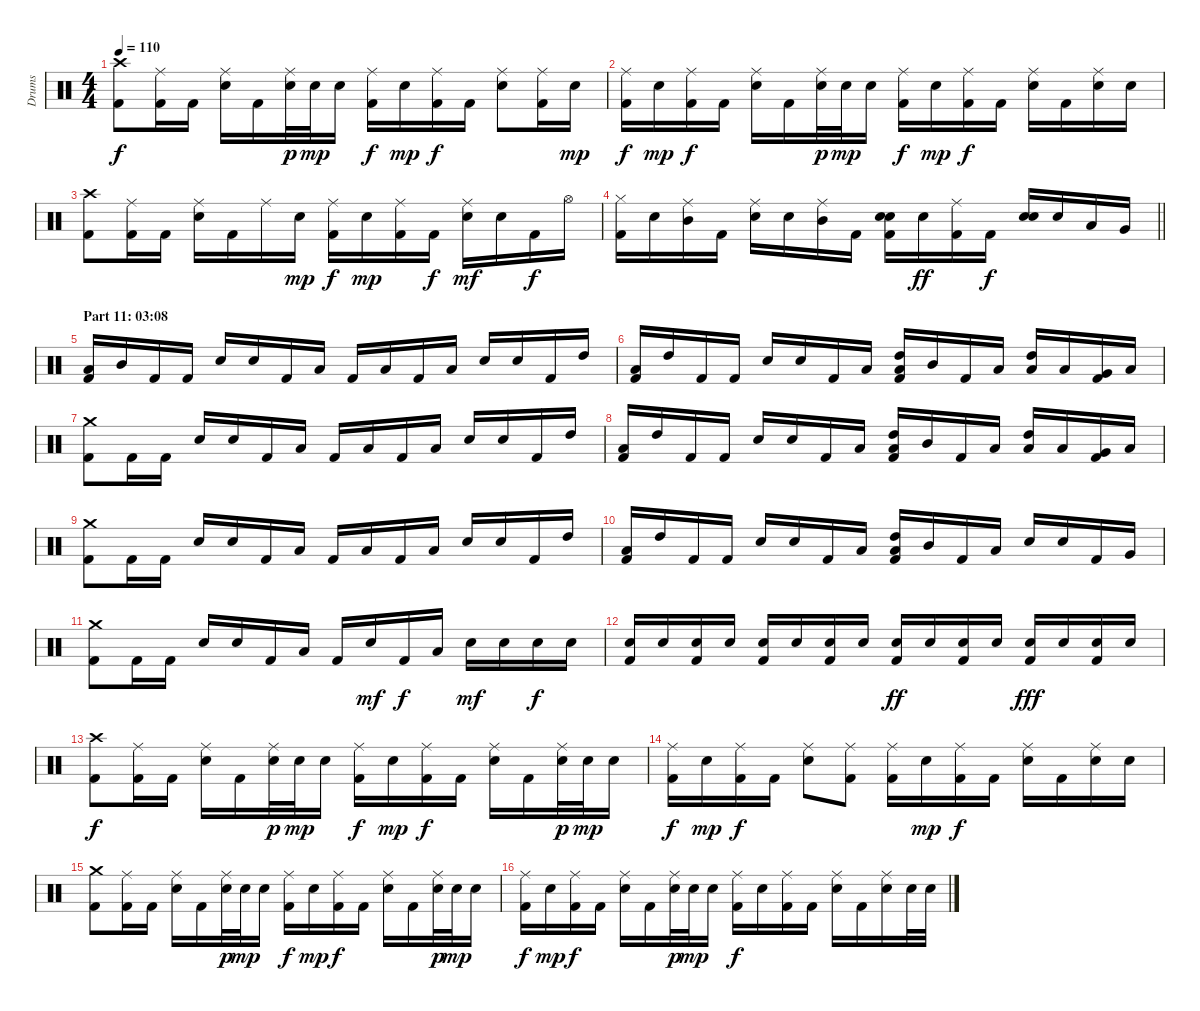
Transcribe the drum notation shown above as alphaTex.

\track ("Drums" "Drums") {instrument percussion}
\staff {score}
\articulation defaults
\ts (4 4)
\tempo 110
\clef neutral
\ks c
("Crash high (hit)" "Kick (hit) 2").8{dy f} ("Ride (middle)" "Kick (hit) 2").16 "Kick (hit) 2".16 ("Ride (middle)" "Electric Snare (hit)").16 "Kick (hit) 2".16 ("Ride (middle)" "Electric Snare (hit)").32{dy p} "Electric Snare (hit)".32{dy mp} "Electric Snare (hit)".16 ("Ride (middle)" "Kick (hit) 2").16{dy f} "Electric Snare (hit)".16{dy mp} ("Ride (middle)" "Kick (hit) 2").16{dy f} "Kick (hit) 2".16 ("Ride (middle)" "Electric Snare (hit)").8 ("Ride (middle)" "Kick (hit) 2").16 "Electric Snare (hit)".16{dy mp} |
("Ride (middle)" "Kick (hit) 2").16{dy f} "Electric Snare (hit)".16{dy mp} ("Ride (middle)" "Kick (hit) 2").16{dy f} "Kick (hit) 2".16 ("Ride (middle)" "Electric Snare (hit)").16 "Kick (hit) 2".16 ("Ride (middle)" "Electric Snare (hit)").32{dy p} "Electric Snare (hit)".32{dy mp} "Electric Snare (hit)".16 ("Ride (middle)" "Kick (hit) 2").16{dy f} "Electric Snare (hit)".16{dy mp} ("Ride (middle)" "Kick (hit) 2").16{dy f} "Kick (hit) 2".16 ("Ride (middle)" "Electric Snare (hit)").16 "Kick (hit) 2".16 ("Ride (middle)" "Electric Snare (hit)").16 "Electric Snare (hit)".16 |
("Crash high (hit)" "Kick (hit) 2").8 ("Ride (middle)" "Kick (hit) 2").16 "Kick (hit) 2".16 ("Ride (middle)" "Electric Snare (hit)").16 "Kick (hit) 2".16 "Ride (middle)".16 "Electric Snare (hit)".16{dy mp} ("Ride (middle)" "Kick (hit) 2").16{dy f} "Electric Snare (hit)".16{dy mp} ("Ride (middle)" "Kick (hit) 2").16 "Kick (hit) 2".16{dy f} ("Ride (middle)" "Electric Snare (hit)").16{dy mf} "Electric Snare (hit)".16 "Kick (hit) 2".16{dy f} "Hi-Hat (open)".16 |
\barLineRight lightlight
("Hi-Hat (closed)" "Kick (hit) 2").16 "Electric Snare (hit)".16 ("Ride (middle)" "Mid Tom (hit)").16 "Kick (hit) 2".16 ("Ride (middle)" "Electric Snare (hit)").16 "Electric Snare (hit)".16 ("Ride (middle)" "Mid Tom (hit)").16 "Kick (hit) 2".16 ("Electric Snare (hit)" "Electric Snare (hit)" "Kick (hit) 2").16{bd 60} "Electric Snare (hit)".16{dy ff} ("Ride (middle)" "Kick (hit) 2").16 "Kick (hit) 2".16{dy f} ("Electric Snare (hit)" "Electric Snare (hit)").16{bd 120} "Electric Snare (hit)".16 "Low Tom (hit)".16 "Very Low Tom (hit)".16 |
\section ("" "Part 11: 03:08")
("Low Floor Tom (hit)" "Kick (hit) 2").16 "Mid Tom (hit)".16 "Kick (hit) 2".16 "Kick (hit) 2".16 "Electric Snare (hit)".16 "Electric Snare (hit)".16 "Kick (hit) 2".16 "Low Floor Tom (hit)".16 "Kick (hit) 2".16 "Low Floor Tom (hit)".16 "Kick (hit) 2".16 "Low Floor Tom (hit)".16 "Electric Snare (hit)".16 "Electric Snare (hit)".16 "Kick (hit) 2".16 "High Tom (hit)".16 |
("Low Tom (hit)" "Kick (hit) 2").16 "High Tom (hit)".16 "Kick (hit) 2".16 "Kick (hit) 2".16 "Electric Snare (hit)".16 "Electric Snare (hit)".16 "Kick (hit) 2".16 "Low Tom (hit)".16 ("High Tom (hit)" "Low Tom (hit)" "Kick (hit) 2").16{bd 60} "Mid Tom (hit)".16 "Kick (hit) 2".16 "Low Floor Tom (hit)".16 ("High Tom (hit)" "Low Floor Tom (hit)").16{bd 120} "Low Tom (hit)".16 ("Very Low Tom (hit)" "Kick (hit) 2").16 "Low Floor Tom (hit)".16 |
("Crash medium (hit)" "Kick (hit) 2").8 "Kick (hit) 2".16 "Kick (hit) 2".16 "Electric Snare (hit)".16 "Electric Snare (hit)".16 "Kick (hit) 2".16 "Low Floor Tom (hit)".16 "Kick (hit) 2".16 "Low Floor Tom (hit)".16 "Kick (hit) 2".16 "Low Floor Tom (hit)".16 "Electric Snare (hit)".16 "Electric Snare (hit)".16 "Kick (hit) 2".16 "High Tom (hit)".16 |
("Low Tom (hit)" "Kick (hit) 2").16 "High Tom (hit)".16 "Kick (hit) 2".16 "Kick (hit) 2".16 "Electric Snare (hit)".16 "Electric Snare (hit)".16 "Kick (hit) 2".16 "Low Tom (hit)".16 ("High Tom (hit)" "Low Tom (hit)" "Kick (hit) 2").16{bd 60} "Mid Tom (hit)".16 "Kick (hit) 2".16 "Low Floor Tom (hit)".16 ("High Tom (hit)" "Low Floor Tom (hit)").16{bd 120} "Low Tom (hit)".16 ("Very Low Tom (hit)" "Kick (hit) 2").16 "Low Floor Tom (hit)".16 |
("Crash medium (hit)" "Kick (hit) 2").8 "Kick (hit) 2".16 "Kick (hit) 2".16 "Electric Snare (hit)".16 "Electric Snare (hit)".16 "Kick (hit) 2".16 "Low Floor Tom (hit)".16 "Kick (hit) 2".16 "Low Floor Tom (hit)".16 "Kick (hit) 2".16 "Low Floor Tom (hit)".16 "Electric Snare (hit)".16 "Electric Snare (hit)".16 "Kick (hit) 2".16 "High Tom (hit)".16 |
("Low Tom (hit)" "Kick (hit) 2").16 "High Tom (hit)".16 "Kick (hit) 2".16 "Kick (hit) 2".16 "Electric Snare (hit)".16 "Electric Snare (hit)".16 "Kick (hit) 2".16 "Low Tom (hit)".16 ("High Tom (hit)" "Low Tom (hit)" "Kick (hit) 2").16{bd 60} "Mid Tom (hit)".16 "Kick (hit) 2".16 "Low Floor Tom (hit)".16 "Electric Snare (hit)".16 "Electric Snare (hit)".16 "Kick (hit) 2".16 "Very Low Tom (hit)".16 |
("Crash medium (hit)" "Kick (hit) 2").8 "Kick (hit) 2".16 "Kick (hit) 2".16 "Electric Snare (hit)".16 "Electric Snare (hit)".16 "Kick (hit) 2".16 "Low Floor Tom (hit)".16 "Kick (hit) 2".16 "Electric Snare (hit)".16{dy mf} "Kick (hit) 2".16{dy f} "Low Floor Tom (hit)".16 "Electric Snare (hit)".16{dy mf} "Electric Snare (hit)".16 "Electric Snare (hit)".16{dy f} "Electric Snare (hit)".16 |
("Electric Snare (hit)" "Kick (hit) 2").16 "Electric Snare (hit)".16 ("Electric Snare (hit)" "Kick (hit) 2").16 "Electric Snare (hit)".16 ("Electric Snare (hit)" "Kick (hit) 2").16 "Electric Snare (hit)".16 ("Electric Snare (hit)" "Kick (hit) 2").16 "Electric Snare (hit)".16 ("Electric Snare (hit)" "Kick (hit) 2").16{dy ff} "Electric Snare (hit)".16 ("Electric Snare (hit)" "Kick (hit) 2").16 "Electric Snare (hit)".16 ("Electric Snare (hit)" "Kick (hit) 2").16{dy fff} "Electric Snare (hit)".16 ("Electric Snare (hit)" "Kick (hit) 2").16 "Electric Snare (hit)".16 |
("Crash high (hit)" "Kick (hit) 2").8{dy f} ("Ride (middle)" "Kick (hit) 2").16 "Kick (hit) 2".16 ("Ride (middle)" "Electric Snare (hit)").16 "Kick (hit) 2".16 ("Ride (middle)" "Electric Snare (hit)").32{dy p} "Electric Snare (hit)".32{dy mp} "Electric Snare (hit)".16 ("Ride (middle)" "Kick (hit) 2").16{dy f} "Electric Snare (hit)".16{dy mp} ("Ride (middle)" "Kick (hit) 2").16{dy f} "Kick (hit) 2".16 ("Ride (middle)" "Electric Snare (hit)").16 "Kick (hit) 2".16 ("Ride (middle)" "Electric Snare (hit)").32{dy p} "Electric Snare (hit)".32{dy mp} "Electric Snare (hit)".16 |
("Ride (middle)" "Kick (hit) 2").16{dy f} "Electric Snare (hit)".16{dy mp} ("Ride (middle)" "Kick (hit) 2").16{dy f} "Kick (hit) 2".16 ("Ride (middle)" "Electric Snare (hit)").8 ("Ride (middle)" "Kick (hit) 2").8 ("Ride (middle)" "Kick (hit) 2").16 "Electric Snare (hit)".16{dy mp} ("Ride (middle)" "Kick (hit) 2").16{dy f} "Kick (hit) 2".16 ("Ride (middle)" "Electric Snare (hit)").16 "Kick (hit) 2".16 ("Ride (middle)" "Electric Snare (hit)").16 "Electric Snare (hit)".16 |
("Crash medium (hit)" "Kick (hit) 2").8 ("Ride (middle)" "Kick (hit) 2").16 "Kick (hit) 2".16 ("Ride (middle)" "Electric Snare (hit)").16 "Kick (hit) 2".16 ("Ride (middle)" "Electric Snare (hit)").32{dy p} "Electric Snare (hit)".32{dy mp} "Electric Snare (hit)".16 ("Ride (middle)" "Kick (hit) 2").16{dy f} "Electric Snare (hit)".16{dy mp} ("Ride (middle)" "Kick (hit) 2").16{dy f} "Kick (hit) 2".16 ("Ride (middle)" "Electric Snare (hit)").16 "Kick (hit) 2".16 ("Ride (middle)" "Electric Snare (hit)").32{dy p} "Electric Snare (hit)".32{dy mp} "Electric Snare (hit)".16 |
("Ride (middle)" "Kick (hit) 2").16{dy f} "Electric Snare (hit)".16{dy mp} ("Ride (middle)" "Kick (hit) 2").16{dy f} "Kick (hit) 2".16 ("Ride (middle)" "Electric Snare (hit)").16 "Kick (hit) 2".16 ("Ride (middle)" "Electric Snare (hit)").32{dy p} "Electric Snare (hit)".32{dy mp} "Electric Snare (hit)".16 ("Ride (middle)" "Kick (hit) 2").16{dy f} "Electric Snare (hit)".16 ("Ride (middle)" "Kick (hit) 2").16 "Kick (hit) 2".16 ("Ride (middle)" "Electric Snare (hit)").16 "Kick (hit) 2".16 ("Ride (middle)" "Electric Snare (hit)").16 "Electric Snare (hit)".32 "Electric Snare (hit)".32
